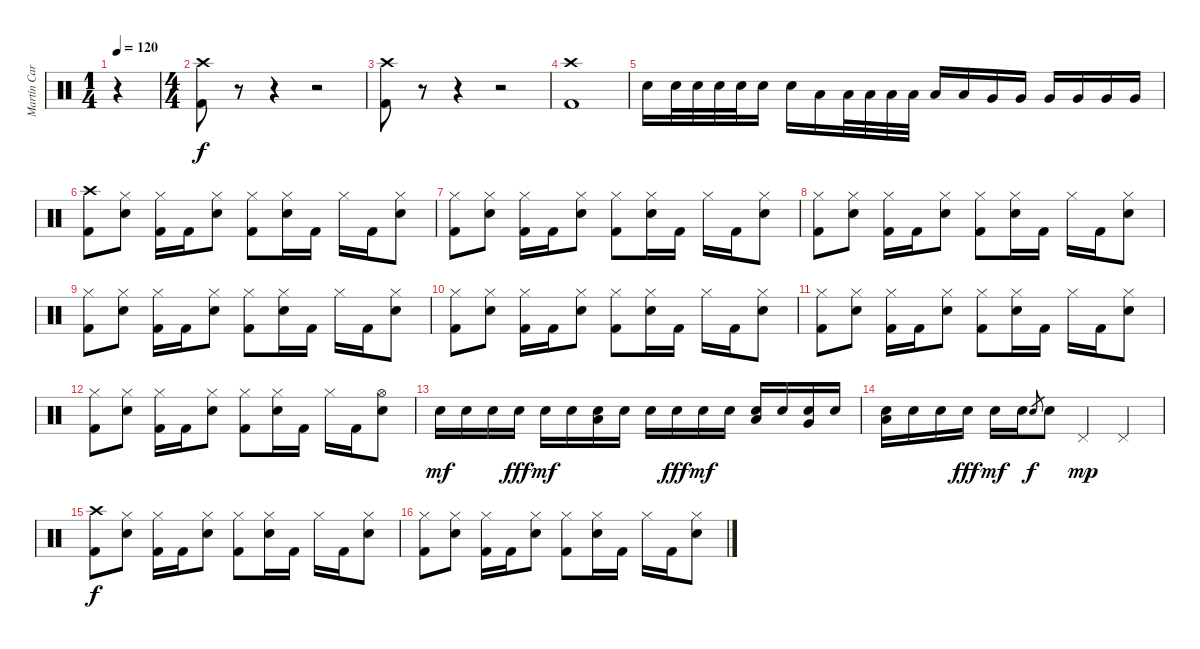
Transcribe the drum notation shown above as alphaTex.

\track ("Martín Carrizo" "Martín Car") {instrument percussion}
\staff {score}
\articulation defaults
\ts (1 4)
\tempo 120
\clef neutral
\ks c
r.4{dy f} |
\ts (4 4)
("Crash high (hit)" "Kick (hit) 2").8 r.8{volume 0} r.4 r.2 |
("Crash high (hit)" "Kick (hit) 2").8{volume 13} r.8{volume 0} r.4 r.2 |
("Crash high (hit)" "Kick (hit) 2").1{volume 13} |
"Snare (hit) 2".16 "Snare (hit) 2".32 "Snare (hit) 2".32 "Snare (hit) 2".32 "Snare (hit) 2".32 "Snare (hit) 2".16 "Snare (hit) 2".16 "Low Tom (hit)".16 "Low Tom (hit)".32 "Low Tom (hit)".32 "Low Tom (hit)".32 "Low Tom (hit)".32 "Low Tom (hit)".16 "Low Tom (hit)".16 "Very Low Tom (hit)".16 "Very Low Tom (hit)".16 "Very Low Tom (hit)".16 "Very Low Tom (hit)".16 "Very Low Tom (hit)".16 "Very Low Tom (hit)".16 |
("Crash high (hit)" "Kick (hit) 2").8 ("Hi-Hat (closed)" "Snare (hit) 2").8 ("Hi-Hat (closed)" "Kick (hit) 2").16 "Kick (hit) 2".16 ("Hi-Hat (closed)" "Snare (hit) 2").8 ("Hi-Hat (closed)" "Kick (hit) 2").8 ("Hi-Hat (closed)" "Snare (hit) 2").16 "Kick (hit) 2".16 "Hi-Hat (closed)".16 "Kick (hit) 2".16 ("Hi-Hat (closed)" "Snare (hit) 2").8 |
("Hi-Hat (closed)" "Kick (hit) 2").8 ("Hi-Hat (closed)" "Snare (hit) 2").8 ("Hi-Hat (closed)" "Kick (hit) 2").16 "Kick (hit) 2".16 ("Hi-Hat (closed)" "Snare (hit) 2").8 ("Hi-Hat (closed)" "Kick (hit) 2").8 ("Hi-Hat (closed)" "Snare (hit) 2").16 "Kick (hit) 2".16 "Hi-Hat (closed)".16 "Kick (hit) 2".16 ("Hi-Hat (closed)" "Snare (hit) 2").8 |
("Hi-Hat (closed)" "Kick (hit) 2").8 ("Hi-Hat (closed)" "Snare (hit) 2").8 ("Hi-Hat (closed)" "Kick (hit) 2").16 "Kick (hit) 2".16 ("Hi-Hat (closed)" "Snare (hit) 2").8 ("Hi-Hat (closed)" "Kick (hit) 2").8 ("Hi-Hat (closed)" "Snare (hit) 2").16 "Kick (hit) 2".16 "Hi-Hat (closed)".16 "Kick (hit) 2".16 ("Hi-Hat (closed)" "Snare (hit) 2").8 |
("Hi-Hat (closed)" "Kick (hit) 2").8 ("Hi-Hat (closed)" "Snare (hit) 2").8 ("Hi-Hat (closed)" "Kick (hit) 2").16 "Kick (hit) 2".16 ("Hi-Hat (closed)" "Snare (hit) 2").8 ("Hi-Hat (closed)" "Kick (hit) 2").8 ("Hi-Hat (closed)" "Snare (hit) 2").16 "Kick (hit) 2".16 "Hi-Hat (closed)".16 "Kick (hit) 2".16 ("Hi-Hat (closed)" "Snare (hit) 2").8 |
("Hi-Hat (closed)" "Kick (hit) 2").8 ("Hi-Hat (closed)" "Snare (hit) 2").8 ("Hi-Hat (closed)" "Kick (hit) 2").16 "Kick (hit) 2".16 ("Hi-Hat (closed)" "Snare (hit) 2").8 ("Hi-Hat (closed)" "Kick (hit) 2").8 ("Hi-Hat (closed)" "Snare (hit) 2").16 "Kick (hit) 2".16 "Hi-Hat (closed)".16 "Kick (hit) 2".16 ("Hi-Hat (closed)" "Snare (hit) 2").8 |
("Hi-Hat (closed)" "Kick (hit) 2").8 ("Hi-Hat (closed)" "Snare (hit) 2").8 ("Hi-Hat (closed)" "Kick (hit) 2").16 "Kick (hit) 2".16 ("Hi-Hat (closed)" "Snare (hit) 2").8 ("Hi-Hat (closed)" "Kick (hit) 2").8 ("Hi-Hat (closed)" "Snare (hit) 2").16 "Kick (hit) 2".16 "Hi-Hat (closed)".16 "Kick (hit) 2".16 ("Hi-Hat (closed)" "Snare (hit) 2").8 |
("Hi-Hat (closed)" "Kick (hit) 2").8 ("Hi-Hat (closed)" "Snare (hit) 2").8 ("Hi-Hat (closed)" "Kick (hit) 2").16 "Kick (hit) 2".16 ("Hi-Hat (closed)" "Snare (hit) 2").8 ("Hi-Hat (closed)" "Kick (hit) 2").8 ("Hi-Hat (closed)" "Snare (hit) 2").16 "Kick (hit) 2".16 "Hi-Hat (closed)".16 "Kick (hit) 2".16 ("Hi-Hat (open)" "Snare (hit) 2").8 |
"Snare (hit) 2".16{dy mf} "Snare (hit) 2".16 "Snare (hit) 2".16 "Snare (hit) 2".16{dy fff} "Snare (hit) 2".16{dy mf} "Snare (hit) 2".16 ("Low Tom (hit)" "Snare (hit) 2").16 "Snare (hit) 2".16 "Snare (hit) 2".16 "Snare (hit) 2".16{dy fff} "Snare (hit) 2".16{dy mf} "Snare (hit) 2".16 ("Low Tom (hit)" "Snare (hit) 2").16 "Snare (hit) 2".16 ("Very Low Tom (hit)" "Snare (hit) 2").16 "Snare (hit) 2".16 |
("Low Tom (hit)" "Snare (hit) 2").16 "Snare (hit) 2".16 "Snare (hit) 2".16 "Snare (hit) 2".16{dy fff} "Snare (hit) 2".16{dy mf} "Snare (hit) 2".16 "Snare (hit) 2".8{gr dy f} "Snare (hit) 2".8 "Pedal Hi-Hat (hit)".4{dy mp} "Pedal Hi-Hat (hit)".4 |
("Crash high (hit)" "Kick (hit) 2").8{dy f} ("Hi-Hat (closed)" "Snare (hit) 2").8 ("Hi-Hat (closed)" "Kick (hit) 2").16 "Kick (hit) 2".16 ("Hi-Hat (closed)" "Snare (hit) 2").8 ("Hi-Hat (closed)" "Kick (hit) 2").8 ("Hi-Hat (closed)" "Snare (hit) 2").16 "Kick (hit) 2".16 "Hi-Hat (closed)".16 "Kick (hit) 2".16 ("Hi-Hat (closed)" "Snare (hit) 2").8 |
("Hi-Hat (closed)" "Kick (hit) 2").8 ("Hi-Hat (closed)" "Snare (hit) 2").8 ("Hi-Hat (closed)" "Kick (hit) 2").16 "Kick (hit) 2".16 ("Hi-Hat (closed)" "Snare (hit) 2").8 ("Hi-Hat (closed)" "Kick (hit) 2").8 ("Hi-Hat (closed)" "Snare (hit) 2").16 "Kick (hit) 2".16 "Hi-Hat (closed)".16 "Kick (hit) 2".16 ("Hi-Hat (closed)" "Snare (hit) 2").8
